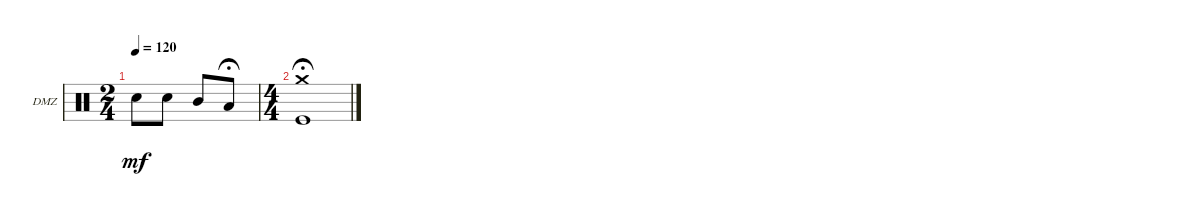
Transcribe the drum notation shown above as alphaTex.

\defaultSystemsLayout 4
\bracketExtendMode groupsimilarinstruments
\firstSystemTrackNameOrientation horizontal
\otherSystemsTrackNameOrientation horizontal
\track ("Drumz" "DMZ") {instrument percussion}
\staff {score}
\articulation defaults
\ts (2 4)
\tempo 120
\clef neutral
\ks c "Snare (hit) 2".8{dy mf} "Snare (hit) 2".8 "Mid Tom (hit)".8 "Low Tom (hit)".8{fermata (medium 0.32)}
|
\ts (4 4)
("Kick (hit)" "Crash medium (hit)").1{fermata (medium 0.43)}
